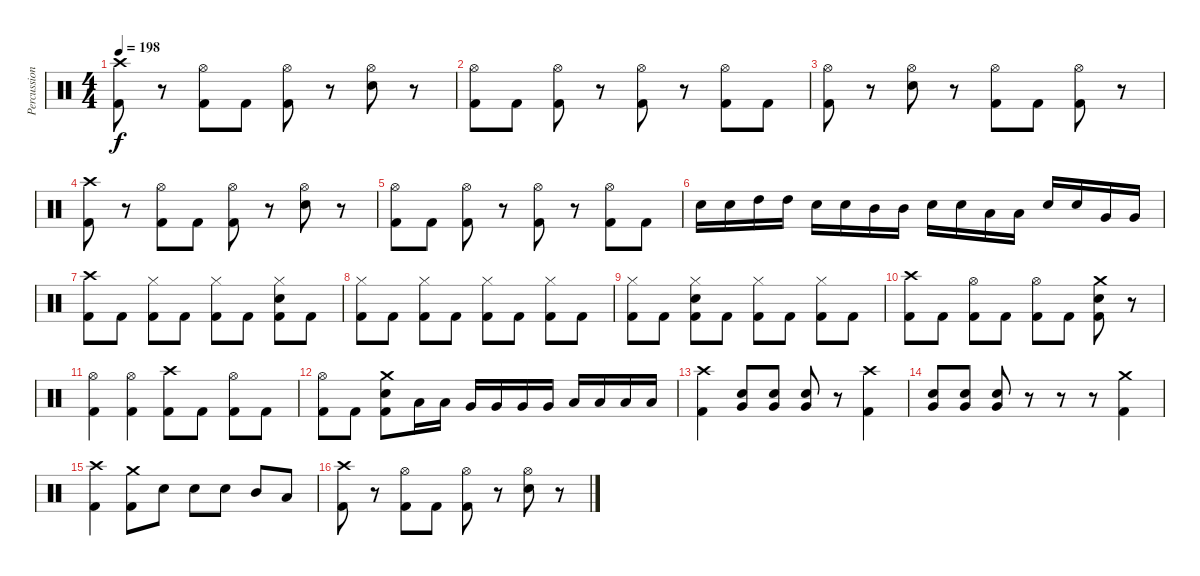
\track ("Percussion" "Percussion") {instrument percussion}
\staff {score}
\articulation defaults
\ts (4 4)
\tempo 198
\clef neutral
\ks c
("Crash high (hit)" "Kick (hit) 2").8{dy f} r.8 ("Hi-Hat (open)" "Kick (hit) 2").8 "Kick (hit) 2".8 ("Hi-Hat (open)" "Kick (hit) 2").8 r.8 ("Hi-Hat (open)" "Electric Snare (hit)").8 r.8 |
("Hi-Hat (open)" "Kick (hit) 2").8 "Kick (hit) 2".8 ("Hi-Hat (open)" "Kick (hit) 2").8 r.8 ("Hi-Hat (open)" "Kick (hit) 2").8 r.8 ("Hi-Hat (open)" "Kick (hit) 2").8 "Kick (hit) 2".8 |
("Hi-Hat (open)" "Kick (hit) 2").8 r.8 ("Hi-Hat (open)" "Electric Snare (hit)").8 r.8 ("Hi-Hat (open)" "Kick (hit) 2").8 "Kick (hit) 2".8 ("Hi-Hat (open)" "Kick (hit) 2").8 r.8 |
("Crash high (hit)" "Kick (hit) 2").8 r.8 ("Hi-Hat (open)" "Kick (hit) 2").8 "Kick (hit) 2".8 ("Hi-Hat (open)" "Kick (hit) 2").8 r.8 ("Hi-Hat (open)" "Electric Snare (hit)").8 r.8 |
("Hi-Hat (open)" "Kick (hit) 2").8 "Kick (hit) 2".8 ("Hi-Hat (open)" "Kick (hit) 2").8 r.8 ("Hi-Hat (open)" "Kick (hit) 2").8 r.8 ("Hi-Hat (open)" "Kick (hit) 2").8 "Kick (hit) 2".8 |
"Electric Snare (hit)".16 "Electric Snare (hit)".16 "High Tom (hit)".16 "High Tom (hit)".16 "Electric Snare (hit)".16 "Electric Snare (hit)".16 "Mid Tom (hit)".16 "Mid Tom (hit)".16 "Electric Snare (hit)".16 "Electric Snare (hit)".16 "Low Tom (hit)".16 "Low Tom (hit)".16 "Electric Snare (hit)".16 "Electric Snare (hit)".16 "Very Low Tom (hit)".16 "Very Low Tom (hit)".16 |
("Crash high (hit)" "Kick (hit) 2").8 "Kick (hit) 2".8 ("Hi-Hat (closed)" "Kick (hit) 2").8 "Kick (hit) 2".8 ("Hi-Hat (closed)" "Kick (hit) 2").8 "Kick (hit) 2".8 ("Hi-Hat (closed)" "Electric Snare (hit)" "Kick (hit) 2").8 "Kick (hit) 2".8 |
("Hi-Hat (closed)" "Kick (hit) 2").8 "Kick (hit) 2".8 ("Hi-Hat (closed)" "Kick (hit) 2").8 "Kick (hit) 2".8 ("Hi-Hat (closed)" "Kick (hit) 2").8 "Kick (hit) 2".8 ("Hi-Hat (closed)" "Kick (hit) 2").8 "Kick (hit) 2".8 |
("Hi-Hat (closed)" "Kick (hit) 2").8 "Kick (hit) 2".8 ("Hi-Hat (closed)" "Electric Snare (hit)" "Kick (hit) 2").8 "Kick (hit) 2".8 ("Hi-Hat (closed)" "Kick (hit) 2").8 "Kick (hit) 2".8 ("Hi-Hat (closed)" "Kick (hit) 2").8 "Kick (hit) 2".8 |
("Crash high (hit)" "Kick (hit) 2").8 "Kick (hit) 2".8 ("Hi-Hat (open)" "Kick (hit) 2").8 "Kick (hit) 2".8 ("Hi-Hat (open)" "Kick (hit) 2").8 "Kick (hit) 2".8 ("Crash medium (hit)" "Electric Snare (hit)" "Kick (hit) 2").8 r.8 |
("Hi-Hat (open)" "Kick (hit) 2").4 ("Hi-Hat (open)" "Kick (hit) 2").4 ("Crash high (hit)" "Kick (hit) 2").8 "Kick (hit) 2".8 ("Hi-Hat (open)" "Kick (hit) 2").8 "Kick (hit) 2".8 |
("Hi-Hat (open)" "Kick (hit) 2").8 "Kick (hit) 2".8 ("Crash medium (hit)" "Electric Snare (hit)" "Kick (hit) 2").8 "Low Tom (hit)".16 "Low Tom (hit)".16 "Very Low Tom (hit)".16 "Very Low Tom (hit)".16 "Very Low Tom (hit)".16 "Very Low Tom (hit)".16 "Low Floor Tom (hit)".16 "Low Floor Tom (hit)".16 "Low Floor Tom (hit)".16 "Low Floor Tom (hit)".16 |
("Crash high (hit)" "Kick (hit) 2").4 ("Electric Snare (hit)" "Very Low Tom (hit)").8 ("Electric Snare (hit)" "Very Low Tom (hit)").8 ("Electric Snare (hit)" "Very Low Tom (hit)").8 r.8 ("Crash high (hit)" "Kick (hit) 2").4 |
("Electric Snare (hit)" "Very Low Tom (hit)").8 ("Electric Snare (hit)" "Very Low Tom (hit)").8 ("Electric Snare (hit)" "Very Low Tom (hit)").8 r.8 r.8 r.8 ("Crash medium (hit)" "Kick (hit) 2").4 |
("Crash high (hit)" "Kick (hit) 2").4 ("Crash medium (hit)" "Kick (hit) 2").8 "Electric Snare (hit)".8 "Electric Snare (hit)".8 "Electric Snare (hit)".8 "Mid Tom (hit)".8 "Low Tom (hit)".8 |
("Crash high (hit)" "Kick (hit) 2").8 r.8 ("Hi-Hat (open)" "Kick (hit) 2").8 "Kick (hit) 2".8 ("Hi-Hat (open)" "Kick (hit) 2").8 r.8 ("Hi-Hat (open)" "Electric Snare (hit)").8 r.8
